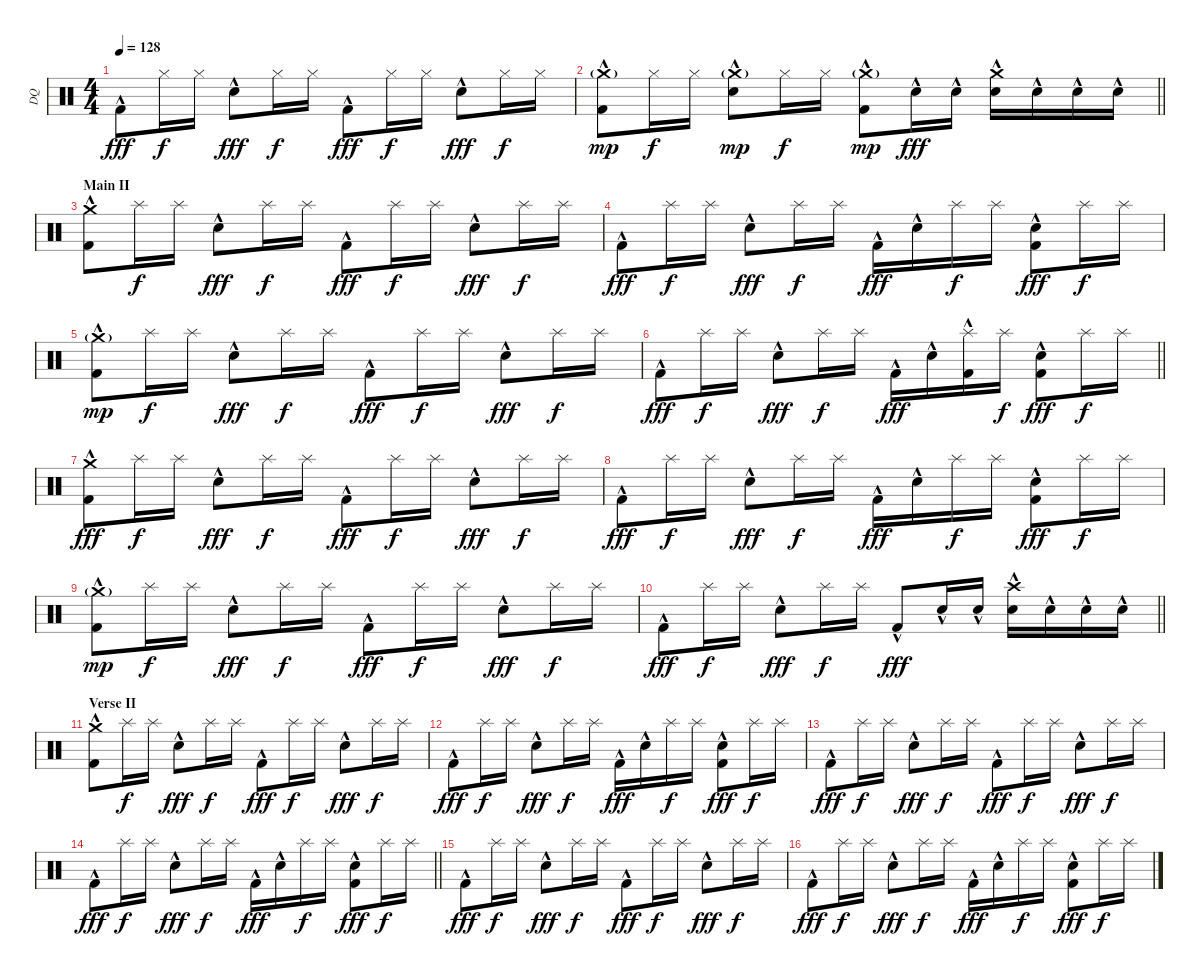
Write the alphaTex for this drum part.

\track ("DQ" "DQ") {instrument percussion}
\staff {score}
\articulation defaults
\ts (4 4)
\tempo 128
\clef neutral
\ks c "Kick (hit) 2"{hac}.8{dy fff} "Hi-Hat (closed)".16{dy f} "Hi-Hat (closed)".16 "Snare (hit) 2"{hac}.8{dy fff} "Hi-Hat (closed)".16{dy f} "Hi-Hat (closed)".16 "Kick (hit) 2"{hac}.8{dy fff} "Hi-Hat (closed)".16{dy f} "Hi-Hat (closed)".16 "Snare (hit) 2"{hac}.8{dy fff} "Hi-Hat (closed)".16{dy f} "Hi-Hat (closed)".16
|
\barLineRight lightlight
("Kick (hit) 2"{hac} "Crash medium (hit)"{g}).8{dy mp} "Hi-Hat (closed)".16{dy f} "Hi-Hat (closed)".16 ("Snare (hit) 2"{hac} "Crash medium (hit)"{g}).8{dy mp} "Hi-Hat (closed)".16{dy f} "Hi-Hat (closed)".16 ("Kick (hit) 2"{hac} "Crash medium (hit)"{g}).8{dy mp} "Snare (hit) 2"{hac}.16{dy fff} "Snare (hit) 2"{hac}.16 ("Snare (hit) 2"{hac} "Crash medium (hit)").16 "Snare (hit) 2"{hac}.16 "Snare (hit) 2"{hac}.16 "Snare (hit) 2"{hac}.16 |
\section ("" "Main II")
("Kick (hit) 2"{hac} "Crash medium (hit)").8 "Splash (hit)".16{dy f} "Splash (hit)".16 "Snare (hit) 2"{hac}.8{dy fff} "Splash (hit)".16{dy f} "Splash (hit)".16 "Kick (hit) 2"{hac}.8{dy fff} "Splash (hit)".16{dy f} "Splash (hit)".16 "Snare (hit) 2"{hac}.8{dy fff} "Splash (hit)".16{dy f} "Splash (hit)".16 |
"Kick (hit) 2"{hac}.8{dy fff} "Splash (hit)".16{dy f} "Splash (hit)".16 "Snare (hit) 2"{hac}.8{dy fff} "Splash (hit)".16{dy f} "Splash (hit)".16 "Kick (hit) 2"{hac}.16{dy fff} "Snare (hit) 2"{hac}.16 "Splash (hit)".16{dy f} "Splash (hit)".16 ("Kick (hit) 2"{hac} "Snare (hit) 2"{hac}).8{dy fff} "Splash (hit)".16{dy f} "Splash (hit)".16 |
("Kick (hit) 2"{hac} "Crash medium (hit)"{g}).8{dy mp} "Splash (hit)".16{dy f} "Splash (hit)".16 "Snare (hit) 2"{hac}.8{dy fff} "Splash (hit)".16{dy f} "Splash (hit)".16 "Kick (hit) 2"{hac}.8{dy fff} "Splash (hit)".16{dy f} "Splash (hit)".16 "Snare (hit) 2"{hac}.8{dy fff} "Splash (hit)".16{dy f} "Splash (hit)".16 |
\barLineRight lightlight "Kick (hit) 2"{hac}.8{dy fff} "Splash (hit)".16{dy f} "Splash (hit)".16 "Snare (hit) 2"{hac}.8{dy fff} "Splash (hit)".16{dy f} "Splash (hit)".16 "Kick (hit) 2"{hac}.16{dy fff} "Snare (hit) 2"{hac}.16
("Kick (hit) 2"{hac} "Splash (hit)").16 "Splash (hit)".16{dy f} ("Kick (hit) 2"{hac} "Snare (hit) 2"{hac}).8{dy fff} "Splash (hit)".16{dy f} "Splash (hit)".16 |
\section ("" "")
("Kick (hit) 2"{hac} "Crash medium (hit)").8{dy fff} "Splash (hit)".16{dy f} "Splash (hit)".16 "Snare (hit) 2"{hac}.8{dy fff} "Splash (hit)".16{dy f} "Splash (hit)".16 "Kick (hit) 2"{hac}.8{dy fff} "Splash (hit)".16{dy f} "Splash (hit)".16 "Snare (hit) 2"{hac}.8{dy fff} "Splash (hit)".16{dy f} "Splash (hit)".16 |
"Kick (hit) 2"{hac}.8{dy fff} "Splash (hit)".16{dy f} "Splash (hit)".16 "Snare (hit) 2"{hac}.8{dy fff} "Splash (hit)".16{dy f} "Splash (hit)".16 "Kick (hit) 2"{hac}.16{dy fff} "Snare (hit) 2"{hac}.16 "Splash (hit)".16{dy f} "Splash (hit)".16 ("Kick (hit) 2"{hac} "Snare (hit) 2"{hac}).8{dy fff} "Splash (hit)".16{dy f} "Splash (hit)".16 |
("Kick (hit) 2"{hac} "Crash medium (hit)"{g}).8{dy mp} "Splash (hit)".16{dy f} "Splash (hit)".16 "Snare (hit) 2"{hac}.8{dy fff} "Splash (hit)".16{dy f} "Splash (hit)".16 "Kick (hit) 2"{hac}.8{dy fff} "Splash (hit)".16{dy f} "Splash (hit)".16 "Snare (hit) 2"{hac}.8{dy fff} "Splash (hit)".16{dy f} "Splash (hit)".16 |
\barLineRight lightlight "Kick (hit) 2"{hac}.8{dy fff} "Splash (hit)".16{dy f} "Splash (hit)".16 "Snare (hit) 2"{hac}.8{dy fff} "Splash (hit)".16{dy f} "Splash (hit)".16 "Kick (hit) 2"{hac}.8{dy fff} "Snare (hit) 2"{hac}.16 "Snare (hit) 2"{hac}.16
("Snare (hit) 2"{hac} "Crash high (hit)").16 "Snare (hit) 2"{hac}.16 "Snare (hit) 2"{hac}.16 "Snare (hit) 2"{hac}.16 |
\section ("" "Verse II")
("Kick (hit) 2"{hac} "Crash medium (hit)").8 "Splash (hit)".16{dy f} "Splash (hit)".16 "Snare (hit) 2"{hac}.8{dy fff} "Splash (hit)".16{dy f} "Splash (hit)".16 "Kick (hit) 2"{hac}.8{dy fff} "Splash (hit)".16{dy f} "Splash (hit)".16 "Snare (hit) 2"{hac}.8{dy fff} "Splash (hit)".16{dy f} "Splash (hit)".16 |
"Kick (hit) 2"{hac}.8{dy fff} "Splash (hit)".16{dy f} "Splash (hit)".16 "Snare (hit) 2"{hac}.8{dy fff} "Splash (hit)".16{dy f} "Splash (hit)".16 "Kick (hit) 2"{hac}.16{dy fff} "Snare (hit) 2"{hac}.16 "Splash (hit)".16{dy f} "Splash (hit)".16 ("Kick (hit) 2"{hac} "Snare (hit) 2"{hac}).8{dy fff} "Splash (hit)".16{dy f} "Splash (hit)".16 |
"Kick (hit) 2"{hac}.8{dy fff} "Splash (hit)".16{dy f} "Splash (hit)".16 "Snare (hit) 2"{hac}.8{dy fff} "Splash (hit)".16{dy f} "Splash (hit)".16 "Kick (hit) 2"{hac}.8{dy fff} "Splash (hit)".16{dy f} "Splash (hit)".16 "Snare (hit) 2"{hac}.8{dy fff} "Splash (hit)".16{dy f} "Splash (hit)".16 |
\barLineRight lightlight "Kick (hit) 2"{hac}.8{dy fff} "Splash (hit)".16{dy f} "Splash (hit)".16 "Snare (hit) 2"{hac}.8{dy fff} "Splash (hit)".16{dy f} "Splash (hit)".16 "Kick (hit) 2"{hac}.16{dy fff} "Snare (hit) 2"{hac}.16 "Splash (hit)".16{dy f} "Splash (hit)".16
("Kick (hit) 2"{hac} "Snare (hit) 2"{hac}).8{dy fff} "Splash (hit)".16{dy f} "Splash (hit)".16 |
\section ("" "")
"Kick (hit) 2"{hac}.8{dy fff} "Splash (hit)".16{dy f} "Splash (hit)".16 "Snare (hit) 2"{hac}.8{dy fff} "Splash (hit)".16{dy f} "Splash (hit)".16 "Kick (hit) 2"{hac}.8{dy fff} "Splash (hit)".16{dy f} "Splash (hit)".16 "Snare (hit) 2"{hac}.8{dy fff} "Splash (hit)".16{dy f} "Splash (hit)".16 |
"Kick (hit) 2"{hac}.8{dy fff} "Splash (hit)".16{dy f} "Splash (hit)".16 "Snare (hit) 2"{hac}.8{dy fff} "Splash (hit)".16{dy f} "Splash (hit)".16 "Kick (hit) 2"{hac}.16{dy fff} "Snare (hit) 2"{hac}.16 "Splash (hit)".16{dy f} "Splash (hit)".16 ("Kick (hit) 2"{hac} "Snare (hit) 2"{hac}).8{dy fff} "Splash (hit)".16{dy f} "Splash (hit)".16
